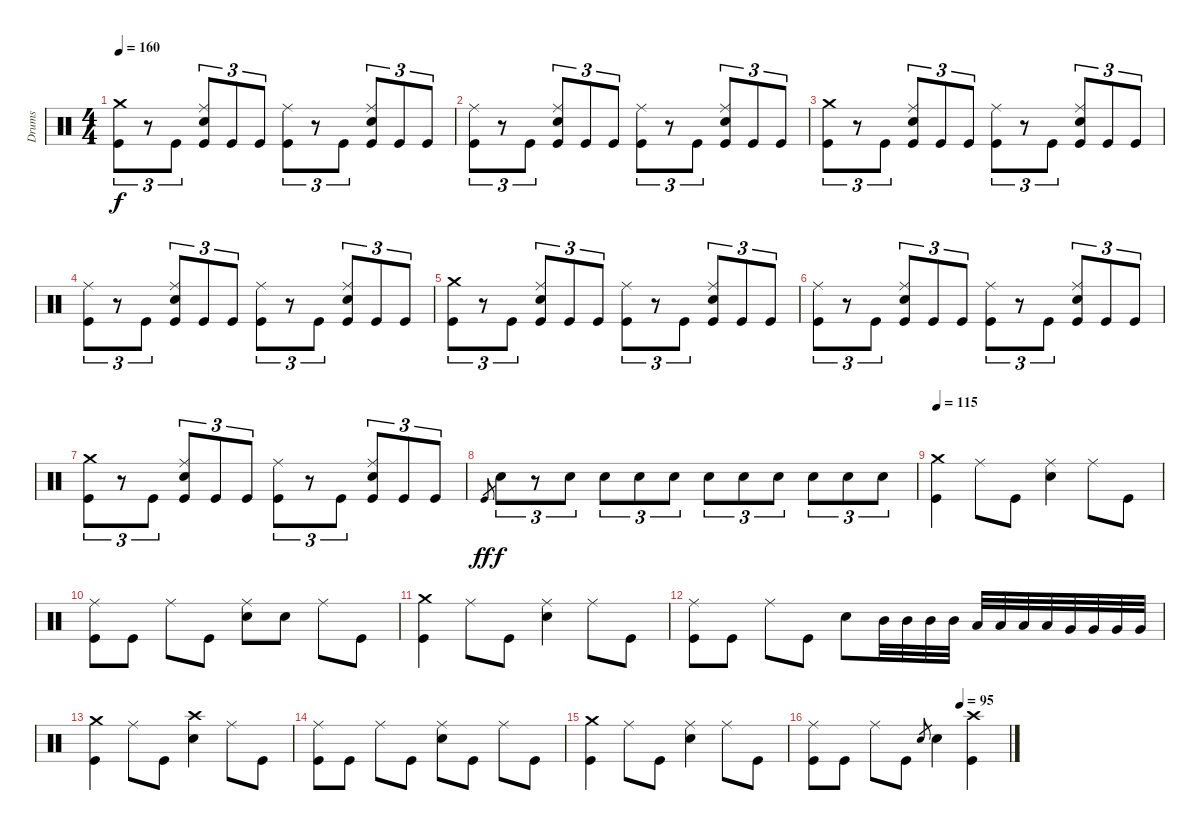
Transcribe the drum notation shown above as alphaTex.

\track ("Drums" "Drums") {instrument percussion}
\staff {score}
\articulation defaults
\ts (4 4)
\tempo 160
\clef neutral
\ks c
("Crash medium (hit)" "Kick (hit)").8{tu (3 2) dy f} r.8{tu (3 2)} "Kick (hit)".8{tu (3 2)} ("Ride (middle)" "Snare (hit) 2" "Kick (hit)").8{tu (3 2)} "Kick (hit)".8{tu (3 2)} "Kick (hit)".8{tu (3 2)} ("Ride (middle)" "Kick (hit)").8{tu (3 2)} r.8{tu (3 2)} "Kick (hit)".8{tu (3 2)} ("Ride (middle)" "Snare (hit) 2" "Kick (hit)").8{tu (3 2)} "Kick (hit)".8{tu (3 2)} "Kick (hit)".8{tu (3 2)} |
("Ride (middle)" "Kick (hit)").8{tu (3 2)} r.8{tu (3 2)} "Kick (hit)".8{tu (3 2)} ("Ride (middle)" "Snare (hit) 2" "Kick (hit)").8{tu (3 2)} "Kick (hit)".8{tu (3 2)} "Kick (hit)".8{tu (3 2)} ("Ride (middle)" "Kick (hit)").8{tu (3 2)} r.8{tu (3 2)} "Kick (hit)".8{tu (3 2)} ("Ride (middle)" "Snare (hit) 2" "Kick (hit)").8{tu (3 2)} "Kick (hit)".8{tu (3 2)} "Kick (hit)".8{tu (3 2)} |
("Crash medium (hit)" "Kick (hit)").8{tu (3 2)} r.8{tu (3 2)} "Kick (hit)".8{tu (3 2)} ("Ride (middle)" "Snare (hit) 2" "Kick (hit)").8{tu (3 2)} "Kick (hit)".8{tu (3 2)} "Kick (hit)".8{tu (3 2)} ("Ride (middle)" "Kick (hit)").8{tu (3 2)} r.8{tu (3 2)} "Kick (hit)".8{tu (3 2)} ("Ride (middle)" "Snare (hit) 2" "Kick (hit)").8{tu (3 2)} "Kick (hit)".8{tu (3 2)} "Kick (hit)".8{tu (3 2)} |
("Ride (middle)" "Kick (hit)").8{tu (3 2)} r.8{tu (3 2)} "Kick (hit)".8{tu (3 2)} ("Ride (middle)" "Snare (hit) 2" "Kick (hit)").8{tu (3 2)} "Kick (hit)".8{tu (3 2)} "Kick (hit)".8{tu (3 2)} ("Ride (middle)" "Kick (hit)").8{tu (3 2)} r.8{tu (3 2)} "Kick (hit)".8{tu (3 2)} ("Ride (middle)" "Snare (hit) 2" "Kick (hit)").8{tu (3 2)} "Kick (hit)".8{tu (3 2)} "Kick (hit)".8{tu (3 2)} |
("Crash medium (hit)" "Kick (hit)").8{tu (3 2)} r.8{tu (3 2)} "Kick (hit)".8{tu (3 2)} ("Ride (middle)" "Snare (hit) 2" "Kick (hit)").8{tu (3 2)} "Kick (hit)".8{tu (3 2)} "Kick (hit)".8{tu (3 2)} ("Ride (middle)" "Kick (hit)").8{tu (3 2)} r.8{tu (3 2)} "Kick (hit)".8{tu (3 2)} ("Ride (middle)" "Snare (hit) 2" "Kick (hit)").8{tu (3 2)} "Kick (hit)".8{tu (3 2)} "Kick (hit)".8{tu (3 2)} |
("Ride (middle)" "Kick (hit)").8{tu (3 2)} r.8{tu (3 2)} "Kick (hit)".8{tu (3 2)} ("Ride (middle)" "Snare (hit) 2" "Kick (hit)").8{tu (3 2)} "Kick (hit)".8{tu (3 2)} "Kick (hit)".8{tu (3 2)} ("Ride (middle)" "Kick (hit)").8{tu (3 2)} r.8{tu (3 2)} "Kick (hit)".8{tu (3 2)} ("Ride (middle)" "Snare (hit) 2" "Kick (hit)").8{tu (3 2)} "Kick (hit)".8{tu (3 2)} "Kick (hit)".8{tu (3 2)} |
("Crash medium (hit)" "Kick (hit)").8{tu (3 2)} r.8{tu (3 2)} "Kick (hit)".8{tu (3 2)} ("Ride (middle)" "Snare (hit) 2" "Kick (hit)").8{tu (3 2)} "Kick (hit)".8{tu (3 2)} "Kick (hit)".8{tu (3 2)} ("Ride (middle)" "Kick (hit)").8{tu (3 2)} r.8{tu (3 2)} "Kick (hit)".8{tu (3 2)} ("Ride (middle)" "Snare (hit) 2" "Kick (hit)").8{tu (3 2)} "Kick (hit)".8{tu (3 2)} "Kick (hit)".8{tu (3 2)} |
"Kick (hit)".8{gr dy ff} "Snare (hit) 2".8{tu (3 2) dy f} r.8{tu (3 2)} "Snare (hit) 2".8{tu (3 2)} "Snare (hit) 2".8{tu (3 2)} "Snare (hit) 2".8{tu (3 2)} "Snare (hit) 2".8{tu (3 2)} "Snare (hit) 2".8{tu (3 2)} "Snare (hit) 2".8{tu (3 2)} "Snare (hit) 2".8{tu (3 2)} "Snare (hit) 2".8{tu (3 2)} "Snare (hit) 2".8{tu (3 2)} "Snare (hit) 2".8{tu (3 2)} |
\tempo 115
("Crash medium (hit)" "Kick (hit)").4 "Ride (middle)".8 "Kick (hit)".8 ("Ride (middle)" "Snare (hit) 2").4 "Ride (middle)".8 "Kick (hit)".8 |
("Ride (middle)" "Kick (hit)").8 "Kick (hit)".8 "Ride (middle)".8 "Kick (hit)".8 ("Ride (middle)" "Snare (hit) 2").8 "Snare (hit) 2".8 "Ride (middle)".8 "Kick (hit)".8 |
("Crash medium (hit)" "Kick (hit)").4 "Ride (middle)".8 "Kick (hit)".8 ("Ride (middle)" "Snare (hit) 2").4 "Ride (middle)".8 "Kick (hit)".8 |
("Ride (middle)" "Kick (hit)").8 "Kick (hit)".8 "Ride (middle)".8 "Kick (hit)".8 "Snare (hit) 2".8 "Mid Tom (hit)".32 "Mid Tom (hit)".32 "Mid Tom (hit)".32 "Mid Tom (hit)".32 "Low Tom (hit)".32 "Low Tom (hit)".32 "Low Tom (hit)".32 "Low Tom (hit)".32 "Very Low Tom (hit)".32 "Very Low Tom (hit)".32 "Very Low Tom (hit)".32 "Very Low Tom (hit)".32 |
("Crash medium (hit)" "Kick (hit)").4 "Ride (middle)".8 "Kick (hit)".8 ("Crash high (hit)" "Snare (hit) 2").4 "Ride (middle)".8 "Kick (hit)".8 |
("Ride (middle)" "Kick (hit)").8 "Kick (hit)".8 "Ride (middle)".8 "Kick (hit)".8 ("Ride (middle)" "Snare (hit) 2").8 "Kick (hit)".8 "Ride (middle)".8 "Kick (hit)".8 |
("Crash medium (hit)" "Kick (hit)").4 "Ride (middle)".8 "Kick (hit)".8 ("Ride (middle)" "Snare (hit) 2").4 "Ride (middle)".8 "Kick (hit)".8 |
\tempo (95 0.75)
("Ride (middle)" "Kick (hit)").8 "Kick (hit)".8 "Ride (middle)".8 "Kick (hit)".8 "Snare (hit) 2".8{gr} "Snare (hit) 2".4 ("Crash high (hit)" "Kick (hit)").4
